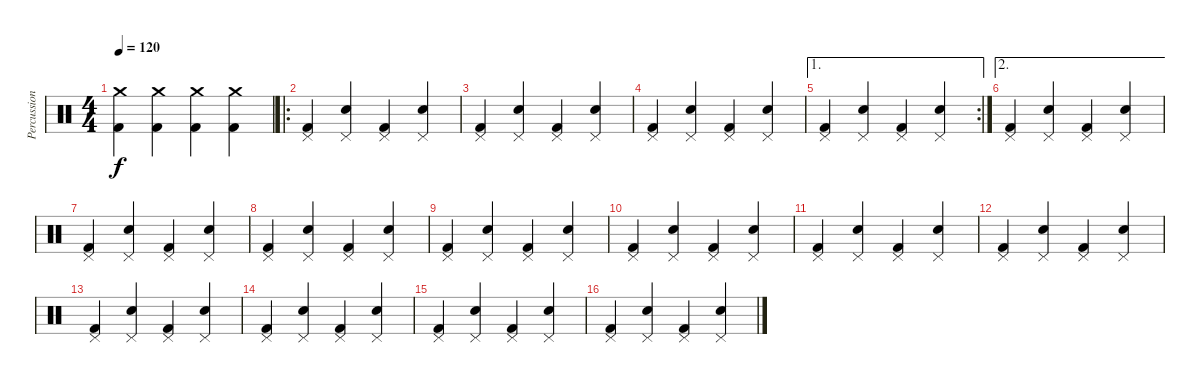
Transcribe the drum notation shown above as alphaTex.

\track ("Percussion" "Percussion") {instrument percussion}
\staff {score}
\articulation defaults
\ts (4 4)
\tempo 120
\clef neutral
\ks c
("Crash medium (hit)" "Kick (hit) 2").4{dy f} ("Crash medium (hit)" "Kick (hit) 2").4 ("Crash medium (hit)" "Kick (hit) 2").4 ("Crash medium (hit)" "Kick (hit) 2").4 |
\ro
("Pedal Hi-Hat (hit)" "Kick (hit) 2").4 ("Pedal Hi-Hat (hit)" "Electric Snare (hit)").4 ("Pedal Hi-Hat (hit)" "Kick (hit) 2").4 ("Pedal Hi-Hat (hit)" "Electric Snare (hit)").4 |
("Pedal Hi-Hat (hit)" "Kick (hit) 2").4 ("Pedal Hi-Hat (hit)" "Electric Snare (hit)").4 ("Pedal Hi-Hat (hit)" "Kick (hit) 2").4 ("Pedal Hi-Hat (hit)" "Electric Snare (hit)").4 |
("Pedal Hi-Hat (hit)" "Kick (hit) 2").4 ("Pedal Hi-Hat (hit)" "Electric Snare (hit)").4 ("Pedal Hi-Hat (hit)" "Kick (hit) 2").4 ("Pedal Hi-Hat (hit)" "Electric Snare (hit)").4 |
\ae 1
\rc 2
("Pedal Hi-Hat (hit)" "Kick (hit) 2").4 ("Pedal Hi-Hat (hit)" "Electric Snare (hit)").4 ("Pedal Hi-Hat (hit)" "Kick (hit) 2").4 ("Pedal Hi-Hat (hit)" "Electric Snare (hit)").4 |
\ae 2
("Pedal Hi-Hat (hit)" "Kick (hit) 2").4 ("Pedal Hi-Hat (hit)" "Electric Snare (hit)").4 ("Pedal Hi-Hat (hit)" "Kick (hit) 2").4 ("Pedal Hi-Hat (hit)" "Electric Snare (hit)").4 |
("Pedal Hi-Hat (hit)" "Kick (hit) 2").4 ("Pedal Hi-Hat (hit)" "Electric Snare (hit)").4 ("Pedal Hi-Hat (hit)" "Kick (hit) 2").4 ("Pedal Hi-Hat (hit)" "Electric Snare (hit)").4 |
("Pedal Hi-Hat (hit)" "Kick (hit) 2").4 ("Pedal Hi-Hat (hit)" "Electric Snare (hit)").4 ("Pedal Hi-Hat (hit)" "Kick (hit) 2").4 ("Pedal Hi-Hat (hit)" "Electric Snare (hit)").4 |
("Pedal Hi-Hat (hit)" "Kick (hit) 2").4 ("Pedal Hi-Hat (hit)" "Electric Snare (hit)").4 ("Pedal Hi-Hat (hit)" "Kick (hit) 2").4 ("Pedal Hi-Hat (hit)" "Electric Snare (hit)").4 |
("Pedal Hi-Hat (hit)" "Kick (hit) 2").4 ("Pedal Hi-Hat (hit)" "Electric Snare (hit)").4 ("Pedal Hi-Hat (hit)" "Kick (hit) 2").4 ("Pedal Hi-Hat (hit)" "Electric Snare (hit)").4 |
("Pedal Hi-Hat (hit)" "Kick (hit) 2").4 ("Pedal Hi-Hat (hit)" "Electric Snare (hit)").4 ("Pedal Hi-Hat (hit)" "Kick (hit) 2").4 ("Pedal Hi-Hat (hit)" "Electric Snare (hit)").4 |
("Pedal Hi-Hat (hit)" "Kick (hit) 2").4 ("Pedal Hi-Hat (hit)" "Electric Snare (hit)").4 ("Pedal Hi-Hat (hit)" "Kick (hit) 2").4 ("Pedal Hi-Hat (hit)" "Electric Snare (hit)").4 |
("Pedal Hi-Hat (hit)" "Kick (hit) 2").4 ("Pedal Hi-Hat (hit)" "Electric Snare (hit)").4 ("Pedal Hi-Hat (hit)" "Kick (hit) 2").4 ("Pedal Hi-Hat (hit)" "Electric Snare (hit)").4 |
("Pedal Hi-Hat (hit)" "Kick (hit) 2").4 ("Pedal Hi-Hat (hit)" "Electric Snare (hit)").4 ("Pedal Hi-Hat (hit)" "Kick (hit) 2").4 ("Pedal Hi-Hat (hit)" "Electric Snare (hit)").4 |
("Pedal Hi-Hat (hit)" "Kick (hit) 2").4 ("Pedal Hi-Hat (hit)" "Electric Snare (hit)").4 ("Pedal Hi-Hat (hit)" "Kick (hit) 2").4 ("Pedal Hi-Hat (hit)" "Electric Snare (hit)").4 |
("Pedal Hi-Hat (hit)" "Kick (hit) 2").4 ("Pedal Hi-Hat (hit)" "Electric Snare (hit)").4 ("Pedal Hi-Hat (hit)" "Kick (hit) 2").4 ("Pedal Hi-Hat (hit)" "Electric Snare (hit)").4
